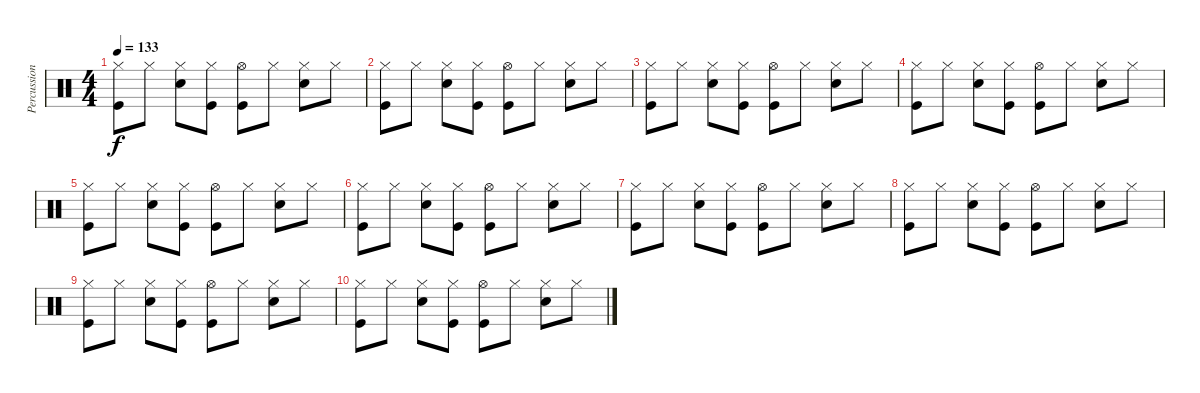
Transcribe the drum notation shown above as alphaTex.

\track ("Percussion" "Percussion") {instrument percussion}
\staff {score}
\articulation defaults
\ts (4 4)
\tempo 133
\clef neutral
\ks c
("Hi-Hat (closed)" "Kick (hit)").8{dy f} "Hi-Hat (closed)".8 ("Hi-Hat (closed)" "Snare (hit) 2").8 ("Hi-Hat (closed)" "Kick (hit)").8 ("Hi-Hat (open)" "Kick (hit)").8 "Hi-Hat (closed)".8 ("Hi-Hat (closed)" "Snare (hit) 2").8 "Hi-Hat (closed)".8 |
("Hi-Hat (closed)" "Kick (hit)").8 "Hi-Hat (closed)".8 ("Hi-Hat (closed)" "Snare (hit) 2").8 ("Hi-Hat (closed)" "Kick (hit)").8 ("Hi-Hat (open)" "Kick (hit)").8 "Hi-Hat (closed)".8 ("Hi-Hat (closed)" "Snare (hit) 2").8 "Hi-Hat (closed)".8 |
("Hi-Hat (closed)" "Kick (hit)").8 "Hi-Hat (closed)".8 ("Hi-Hat (closed)" "Snare (hit) 2").8 ("Hi-Hat (closed)" "Kick (hit)").8 ("Hi-Hat (open)" "Kick (hit)").8 "Hi-Hat (closed)".8 ("Hi-Hat (closed)" "Snare (hit) 2").8 "Hi-Hat (closed)".8 |
("Hi-Hat (closed)" "Kick (hit)").8 "Hi-Hat (closed)".8 ("Hi-Hat (closed)" "Snare (hit) 2").8 ("Hi-Hat (closed)" "Kick (hit)").8 ("Hi-Hat (open)" "Kick (hit)").8 "Hi-Hat (closed)".8 ("Hi-Hat (closed)" "Snare (hit) 2").8 "Hi-Hat (closed)".8 |
("Hi-Hat (closed)" "Kick (hit)").8 "Hi-Hat (closed)".8 ("Hi-Hat (closed)" "Snare (hit) 2").8 ("Hi-Hat (closed)" "Kick (hit)").8 ("Hi-Hat (open)" "Kick (hit)").8 "Hi-Hat (closed)".8 ("Hi-Hat (closed)" "Snare (hit) 2").8 "Hi-Hat (closed)".8 |
("Hi-Hat (closed)" "Kick (hit)").8 "Hi-Hat (closed)".8 ("Hi-Hat (closed)" "Snare (hit) 2").8 ("Hi-Hat (closed)" "Kick (hit)").8 ("Hi-Hat (open)" "Kick (hit)").8 "Hi-Hat (closed)".8 ("Hi-Hat (closed)" "Snare (hit) 2").8 "Hi-Hat (closed)".8 |
("Hi-Hat (closed)" "Kick (hit)").8 "Hi-Hat (closed)".8 ("Hi-Hat (closed)" "Snare (hit) 2").8 ("Hi-Hat (closed)" "Kick (hit)").8 ("Hi-Hat (open)" "Kick (hit)").8 "Hi-Hat (closed)".8 ("Hi-Hat (closed)" "Snare (hit) 2").8 "Hi-Hat (closed)".8 |
("Hi-Hat (closed)" "Kick (hit)").8 "Hi-Hat (closed)".8 ("Hi-Hat (closed)" "Snare (hit) 2").8 ("Hi-Hat (closed)" "Kick (hit)").8 ("Hi-Hat (open)" "Kick (hit)").8 "Hi-Hat (closed)".8 ("Hi-Hat (closed)" "Snare (hit) 2").8 "Hi-Hat (closed)".8 |
("Hi-Hat (closed)" "Kick (hit)").8 "Hi-Hat (closed)".8 ("Hi-Hat (closed)" "Snare (hit) 2").8 ("Hi-Hat (closed)" "Kick (hit)").8 ("Hi-Hat (open)" "Kick (hit)").8 "Hi-Hat (closed)".8 ("Hi-Hat (closed)" "Snare (hit) 2").8 "Hi-Hat (closed)".8 |
("Hi-Hat (closed)" "Kick (hit)").8 "Hi-Hat (closed)".8 ("Hi-Hat (closed)" "Snare (hit) 2").8 ("Hi-Hat (closed)" "Kick (hit)").8 ("Hi-Hat (open)" "Kick (hit)").8 "Hi-Hat (closed)".8 ("Hi-Hat (closed)" "Snare (hit) 2").8 "Hi-Hat (closed)".8
